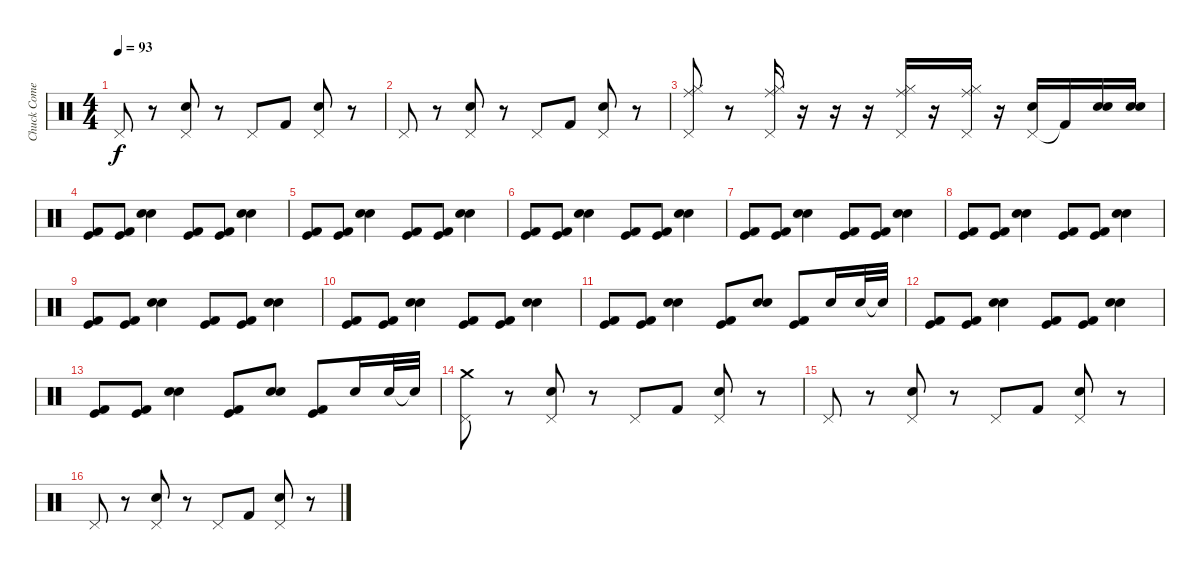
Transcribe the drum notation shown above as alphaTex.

\track ("Chuck Comeau" "Chuck Come") {instrument percussion}
\staff {score}
\articulation defaults
\ts (4 4)
\tempo 93
\clef neutral
\ks c "Pedal Hi-Hat (hit)".8{dy f}
r.8 ("Pedal Hi-Hat (hit)" "Electric Snare (hit)").8 r.8 "Pedal Hi-Hat (hit)".8 "Kick (hit) 2".8 ("Pedal Hi-Hat (hit)" "Electric Snare (hit)").8 r.8 |
"Pedal Hi-Hat (hit)".8 r.8 ("Pedal Hi-Hat (hit)" "Electric Snare (hit)").8 r.8 "Pedal Hi-Hat (hit)".8 "Kick (hit) 2".8 ("Pedal Hi-Hat (hit)" "Electric Snare (hit)").8 r.8 |
("Pedal Hi-Hat (hit)" "Hi-Hat (closed)" "Ride (middle)").8 r.8 ("Pedal Hi-Hat (hit)" "Hi-Hat (closed)" "Ride (middle)").16 r.16 r.16 r.16 ("Pedal Hi-Hat (hit)" "Hi-Hat (closed)" "Ride (middle)").16 r.16 ("Pedal Hi-Hat (hit)" "Hi-Hat (closed)" "Ride (middle)").16 r.16 ("Pedal Hi-Hat (hit)" "Electric Snare (hit)").16 "Kick (hit) 2"{t}.16 ("Electric Snare (hit)" "Electric Snare (hit)").16 ("Electric Snare (hit)" "Electric Snare (hit)").16 |
("Kick (hit) 2" "Kick (hit)").8 ("Kick (hit) 2" "Kick (hit)").8 ("Electric Snare (hit)" "Snare (hit) 2").4 ("Kick (hit) 2" "Kick (hit)").8 ("Kick (hit) 2" "Kick (hit)").8 ("Electric Snare (hit)" "Snare (hit) 2").4 |
("Kick (hit) 2" "Kick (hit)").8 ("Kick (hit) 2" "Kick (hit)").8 ("Electric Snare (hit)" "Snare (hit) 2").4 ("Kick (hit) 2" "Kick (hit)").8 ("Kick (hit) 2" "Kick (hit)").8 ("Electric Snare (hit)" "Snare (hit) 2").4 |
("Kick (hit) 2" "Kick (hit)").8 ("Kick (hit) 2" "Kick (hit)").8 ("Electric Snare (hit)" "Snare (hit) 2").4 ("Kick (hit) 2" "Kick (hit)").8 ("Kick (hit) 2" "Kick (hit)").8 ("Electric Snare (hit)" "Snare (hit) 2").4 |
("Kick (hit) 2" "Kick (hit)").8 ("Kick (hit) 2" "Kick (hit)").8 ("Electric Snare (hit)" "Snare (hit) 2").4 ("Kick (hit) 2" "Kick (hit)").8 ("Kick (hit) 2" "Kick (hit)").8 ("Electric Snare (hit)" "Snare (hit) 2").4 |
("Kick (hit) 2" "Kick (hit)").8 ("Kick (hit) 2" "Kick (hit)").8 ("Electric Snare (hit)" "Snare (hit) 2").4 ("Kick (hit) 2" "Kick (hit)").8 ("Kick (hit) 2" "Kick (hit)").8 ("Electric Snare (hit)" "Snare (hit) 2").4 |
("Kick (hit) 2" "Kick (hit)").8 ("Kick (hit) 2" "Kick (hit)").8 ("Electric Snare (hit)" "Snare (hit) 2").4 ("Kick (hit) 2" "Kick (hit)").8 ("Kick (hit) 2" "Kick (hit)").8 ("Electric Snare (hit)" "Snare (hit) 2").4 |
("Kick (hit) 2" "Kick (hit)").8 ("Kick (hit) 2" "Kick (hit)").8 ("Electric Snare (hit)" "Snare (hit) 2").4 ("Kick (hit) 2" "Kick (hit)").8 ("Kick (hit) 2" "Kick (hit)").8 ("Electric Snare (hit)" "Snare (hit) 2").4 |
("Kick (hit) 2" "Kick (hit)").8 ("Kick (hit) 2" "Kick (hit)").8 ("Electric Snare (hit)" "Snare (hit) 2").4 ("Kick (hit)" "Kick (hit) 2").8 ("Electric Snare (hit)" "Snare (hit) 2").8 ("Kick (hit)" "Kick (hit) 2").8 "Electric Snare (hit)".16 "Electric Snare (hit)".32 "Electric Snare (hit)"{t}.32 |
("Kick (hit) 2" "Kick (hit)").8 ("Kick (hit) 2" "Kick (hit)").8 ("Electric Snare (hit)" "Snare (hit) 2").4 ("Kick (hit) 2" "Kick (hit)").8 ("Kick (hit) 2" "Kick (hit)").8 ("Electric Snare (hit)" "Snare (hit) 2").4 |
("Kick (hit) 2" "Kick (hit)").8 ("Kick (hit) 2" "Kick (hit)").8 ("Electric Snare (hit)" "Snare (hit) 2").4 ("Kick (hit)" "Kick (hit) 2").8 ("Electric Snare (hit)" "Snare (hit) 2").8 ("Kick (hit)" "Kick (hit) 2").8 "Electric Snare (hit)".16 "Electric Snare (hit)".32 "Electric Snare (hit)"{t}.32 |
("Pedal Hi-Hat (hit)" "Crash medium (hit)").8 r.8 ("Pedal Hi-Hat (hit)" "Electric Snare (hit)").8 r.8 "Pedal Hi-Hat (hit)".8 "Kick (hit) 2".8 ("Pedal Hi-Hat (hit)" "Electric Snare (hit)").8 r.8 |
"Pedal Hi-Hat (hit)".8 r.8 ("Pedal Hi-Hat (hit)" "Electric Snare (hit)").8 r.8 "Pedal Hi-Hat (hit)".8 "Kick (hit) 2".8 ("Pedal Hi-Hat (hit)" "Electric Snare (hit)").8 r.8 |
"Pedal Hi-Hat (hit)".8 r.8 ("Pedal Hi-Hat (hit)" "Electric Snare (hit)").8 r.8 "Pedal Hi-Hat (hit)".8 "Kick (hit) 2".8 ("Pedal Hi-Hat (hit)" "Electric Snare (hit)").8 r.8
